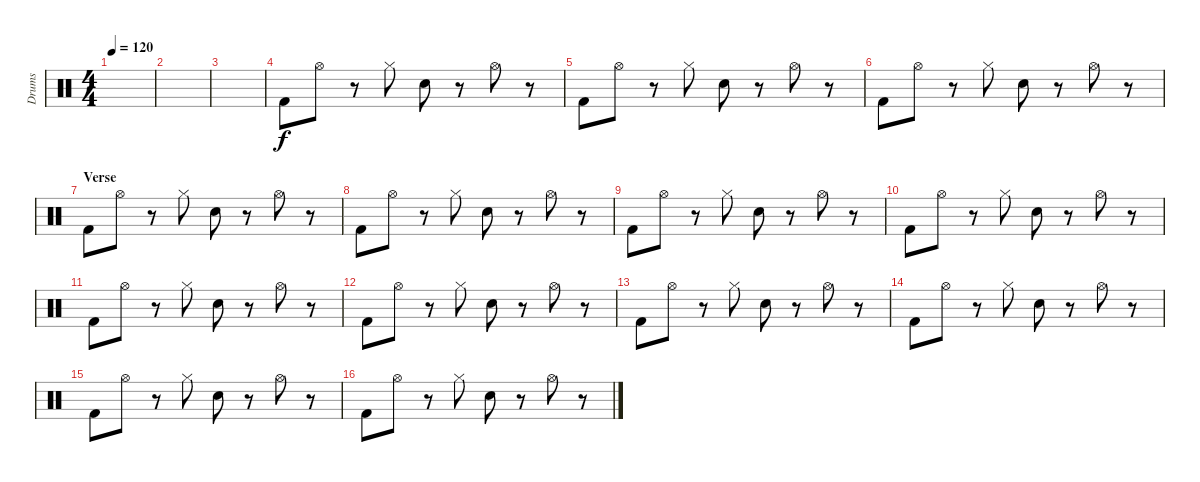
\track ("Drums" "Drums") {instrument percussion}
\staff {score}
\articulation defaults
\ts (4 4)
\tempo 120
\clef neutral
\ks c
|
|
|
"Kick (hit) 2".8 "Hi-Hat (open)".8 r.8 "Hi-Hat (closed)".8 "Snare (hit) 2".8 r.8 "Hi-Hat (open)".8 r.8 |
"Kick (hit) 2".8 "Hi-Hat (open)".8 r.8 "Hi-Hat (closed)".8 "Snare (hit) 2".8 r.8 "Hi-Hat (open)".8 r.8 |
"Kick (hit) 2".8 "Hi-Hat (open)".8 r.8 "Hi-Hat (closed)".8 "Snare (hit) 2".8 r.8 "Hi-Hat (open)".8 r.8 |
\section ("" "Verse")
"Kick (hit) 2".8 "Hi-Hat (open)".8 r.8 "Hi-Hat (closed)".8 "Snare (hit) 2".8 r.8 "Hi-Hat (open)".8 r.8 |
"Kick (hit) 2".8 "Hi-Hat (open)".8 r.8 "Hi-Hat (closed)".8 "Snare (hit) 2".8 r.8 "Hi-Hat (open)".8 r.8 |
"Kick (hit) 2".8 "Hi-Hat (open)".8 r.8 "Hi-Hat (closed)".8 "Snare (hit) 2".8 r.8 "Hi-Hat (open)".8 r.8 |
"Kick (hit) 2".8 "Hi-Hat (open)".8 r.8 "Hi-Hat (closed)".8 "Snare (hit) 2".8 r.8 "Hi-Hat (open)".8 r.8 |
"Kick (hit) 2".8 "Hi-Hat (open)".8 r.8 "Hi-Hat (closed)".8 "Snare (hit) 2".8 r.8 "Hi-Hat (open)".8 r.8 |
"Kick (hit) 2".8 "Hi-Hat (open)".8 r.8 "Hi-Hat (closed)".8 "Snare (hit) 2".8 r.8 "Hi-Hat (open)".8 r.8 |
"Kick (hit) 2".8 "Hi-Hat (open)".8 r.8 "Hi-Hat (closed)".8 "Snare (hit) 2".8 r.8 "Hi-Hat (open)".8 r.8 |
"Kick (hit) 2".8 "Hi-Hat (open)".8 r.8 "Hi-Hat (closed)".8 "Snare (hit) 2".8 r.8 "Hi-Hat (open)".8 r.8 |
"Kick (hit) 2".8 "Hi-Hat (open)".8 r.8 "Hi-Hat (closed)".8 "Snare (hit) 2".8 r.8 "Hi-Hat (open)".8 r.8 |
"Kick (hit) 2".8 "Hi-Hat (open)".8 r.8 "Hi-Hat (closed)".8 "Snare (hit) 2".8 r.8 "Hi-Hat (open)".8 r.8
